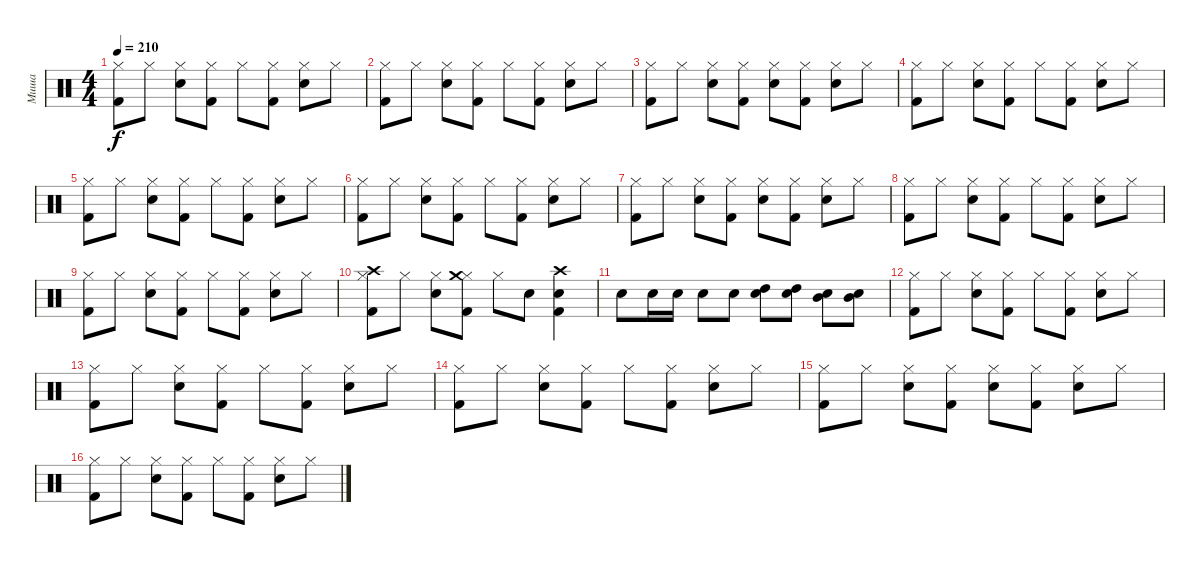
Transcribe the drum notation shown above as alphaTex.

\track ("Миша" "Миша") {instrument percussion}
\staff {score}
\articulation defaults
\ts (4 4)
\tempo 210
\clef neutral
\ks c
("Hi-Hat (closed)" "Kick (hit) 2").8{dy f} "Hi-Hat (closed)".8 ("Hi-Hat (closed)" "Snare (hit) 2").8 ("Hi-Hat (closed)" "Kick (hit) 2").8 "Hi-Hat (closed)".8 ("Hi-Hat (closed)" "Kick (hit) 2").8 ("Hi-Hat (closed)" "Snare (hit) 2").8 "Hi-Hat (closed)".8 |
("Hi-Hat (closed)" "Kick (hit) 2").8 "Hi-Hat (closed)".8 ("Hi-Hat (closed)" "Snare (hit) 2").8 ("Hi-Hat (closed)" "Kick (hit) 2").8 "Hi-Hat (closed)".8 ("Hi-Hat (closed)" "Kick (hit) 2").8 ("Hi-Hat (closed)" "Snare (hit) 2").8 "Hi-Hat (closed)".8 |
("Hi-Hat (closed)" "Kick (hit) 2").8 "Hi-Hat (closed)".8 ("Hi-Hat (closed)" "Snare (hit) 2").8 ("Hi-Hat (closed)" "Kick (hit) 2").8 ("Hi-Hat (closed)" "Snare (hit) 2").8 ("Hi-Hat (closed)" "Kick (hit) 2").8 ("Hi-Hat (closed)" "Snare (hit) 2").8 "Hi-Hat (closed)".8 |
("Hi-Hat (closed)" "Kick (hit) 2").8 "Hi-Hat (closed)".8 ("Hi-Hat (closed)" "Snare (hit) 2").8 ("Hi-Hat (closed)" "Kick (hit) 2").8 "Hi-Hat (closed)".8 ("Hi-Hat (closed)" "Kick (hit) 2").8 ("Hi-Hat (closed)" "Snare (hit) 2").8 "Hi-Hat (closed)".8 |
("Hi-Hat (closed)" "Kick (hit) 2").8 "Hi-Hat (closed)".8 ("Hi-Hat (closed)" "Snare (hit) 2").8 ("Hi-Hat (closed)" "Kick (hit) 2").8 "Hi-Hat (closed)".8 ("Hi-Hat (closed)" "Kick (hit) 2").8 ("Hi-Hat (closed)" "Snare (hit) 2").8 "Hi-Hat (closed)".8 |
("Hi-Hat (closed)" "Kick (hit) 2").8 "Hi-Hat (closed)".8 ("Hi-Hat (closed)" "Snare (hit) 2").8 ("Hi-Hat (closed)" "Kick (hit) 2").8 "Hi-Hat (closed)".8 ("Hi-Hat (closed)" "Kick (hit) 2").8 ("Hi-Hat (closed)" "Snare (hit) 2").8 "Hi-Hat (closed)".8 |
("Hi-Hat (closed)" "Kick (hit) 2").8 "Hi-Hat (closed)".8 ("Hi-Hat (closed)" "Snare (hit) 2").8 ("Hi-Hat (closed)" "Kick (hit) 2").8 ("Hi-Hat (closed)" "Snare (hit) 2").8 ("Hi-Hat (closed)" "Kick (hit) 2").8 ("Hi-Hat (closed)" "Snare (hit) 2").8 "Hi-Hat (closed)".8 |
("Hi-Hat (closed)" "Kick (hit) 2").8 "Hi-Hat (closed)".8 ("Hi-Hat (closed)" "Snare (hit) 2").8 ("Hi-Hat (closed)" "Kick (hit) 2").8 "Hi-Hat (closed)".8 ("Hi-Hat (closed)" "Kick (hit) 2").8 ("Hi-Hat (closed)" "Snare (hit) 2").8 "Hi-Hat (closed)".8 |
("Hi-Hat (closed)" "Kick (hit) 2").8 "Hi-Hat (closed)".8 ("Hi-Hat (closed)" "Snare (hit) 2").8 ("Hi-Hat (closed)" "Kick (hit) 2").8 "Hi-Hat (closed)".8 ("Hi-Hat (closed)" "Kick (hit) 2").8 ("Hi-Hat (closed)" "Snare (hit) 2").8 "Hi-Hat (closed)".8 |
("Hi-Hat (closed)" "Kick (hit) 2" "Crash high (hit)").8 "Hi-Hat (closed)".8 ("Hi-Hat (closed)" "Snare (hit) 2").8 ("Hi-Hat (closed)" "Kick (hit) 2" "Crash medium (hit)").8 "Hi-Hat (closed)".8 "Snare (hit) 2".8 ("Kick (hit) 2" "Snare (hit) 2" "Crash high (hit)").4 |
"Snare (hit) 2".8 "Snare (hit) 2".16 "Snare (hit) 2".16 "Snare (hit) 2".8 "Snare (hit) 2".8 ("Snare (hit) 2" "High Tom (hit)").8 ("Snare (hit) 2" "High Tom (hit)").8 ("Snare (hit) 2" "Mid Tom (hit)").8 ("Snare (hit) 2" "Mid Tom (hit)").8 |
("Hi-Hat (closed)" "Kick (hit) 2").8 "Hi-Hat (closed)".8 ("Hi-Hat (closed)" "Snare (hit) 2").8 ("Hi-Hat (closed)" "Kick (hit) 2").8 "Hi-Hat (closed)".8 ("Hi-Hat (closed)" "Kick (hit) 2").8 ("Hi-Hat (closed)" "Snare (hit) 2").8 "Hi-Hat (closed)".8 |
("Hi-Hat (closed)" "Kick (hit) 2").8 "Hi-Hat (closed)".8 ("Hi-Hat (closed)" "Snare (hit) 2").8 ("Hi-Hat (closed)" "Kick (hit) 2").8 "Hi-Hat (closed)".8 ("Hi-Hat (closed)" "Kick (hit) 2").8 ("Hi-Hat (closed)" "Snare (hit) 2").8 "Hi-Hat (closed)".8 |
("Hi-Hat (closed)" "Kick (hit) 2").8 "Hi-Hat (closed)".8 ("Hi-Hat (closed)" "Snare (hit) 2").8 ("Hi-Hat (closed)" "Kick (hit) 2").8 "Hi-Hat (closed)".8 ("Hi-Hat (closed)" "Kick (hit) 2").8 ("Hi-Hat (closed)" "Snare (hit) 2").8 "Hi-Hat (closed)".8 |
("Hi-Hat (closed)" "Kick (hit) 2").8 "Hi-Hat (closed)".8 ("Hi-Hat (closed)" "Snare (hit) 2").8 ("Hi-Hat (closed)" "Kick (hit) 2").8 ("Hi-Hat (closed)" "Snare (hit) 2").8 ("Hi-Hat (closed)" "Kick (hit) 2").8 ("Hi-Hat (closed)" "Snare (hit) 2").8 "Hi-Hat (closed)".8 |
("Hi-Hat (closed)" "Kick (hit) 2").8 "Hi-Hat (closed)".8 ("Hi-Hat (closed)" "Snare (hit) 2").8 ("Hi-Hat (closed)" "Kick (hit) 2").8 "Hi-Hat (closed)".8 ("Hi-Hat (closed)" "Kick (hit) 2").8 ("Hi-Hat (closed)" "Snare (hit) 2").8 "Hi-Hat (closed)".8
